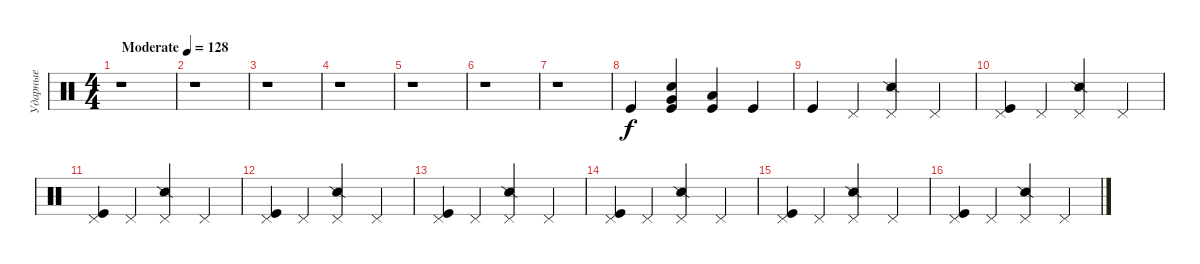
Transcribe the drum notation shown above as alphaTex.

\track ("Ударные" "Ударные") {instrument percussion}
\staff {score}
\articulation defaults
\ts (4 4)
\tempo (128 "Moderate")
\clef neutral
\ks c
r.1{dy f} |
r.1 |
r.1 |
r.1 |
r.1 |
r.1 |
r.1 |
"Kick (hit)".4 ("Snare (hit) 2" "Very Low Tom (hit)" "Kick (hit)").4 ("Low Tom (hit)" "Kick (hit)").4 "Kick (hit)".4 |
"Kick (hit)".4 "Pedal Hi-Hat (hit)".4 ("Pedal Hi-Hat (hit)" "Snare (side stick) 2").4 "Pedal Hi-Hat (hit)".4 |
("Pedal Hi-Hat (hit)" "Kick (hit)").4 "Pedal Hi-Hat (hit)".4 ("Pedal Hi-Hat (hit)" "Snare (side stick) 2").4 "Pedal Hi-Hat (hit)".4 |
("Pedal Hi-Hat (hit)" "Kick (hit)").4 "Pedal Hi-Hat (hit)".4 ("Pedal Hi-Hat (hit)" "Snare (side stick) 2").4 "Pedal Hi-Hat (hit)".4 |
("Pedal Hi-Hat (hit)" "Kick (hit)").4 "Pedal Hi-Hat (hit)".4 ("Pedal Hi-Hat (hit)" "Snare (side stick) 2").4 "Pedal Hi-Hat (hit)".4 |
("Pedal Hi-Hat (hit)" "Kick (hit)").4 "Pedal Hi-Hat (hit)".4 ("Pedal Hi-Hat (hit)" "Snare (side stick) 2").4 "Pedal Hi-Hat (hit)".4 |
("Pedal Hi-Hat (hit)" "Kick (hit)").4 "Pedal Hi-Hat (hit)".4 ("Pedal Hi-Hat (hit)" "Snare (side stick) 2").4 "Pedal Hi-Hat (hit)".4 |
("Pedal Hi-Hat (hit)" "Kick (hit)").4 "Pedal Hi-Hat (hit)".4 ("Pedal Hi-Hat (hit)" "Snare (side stick) 2").4 "Pedal Hi-Hat (hit)".4 |
("Pedal Hi-Hat (hit)" "Kick (hit)").4 "Pedal Hi-Hat (hit)".4 ("Pedal Hi-Hat (hit)" "Snare (side stick) 2").4 "Pedal Hi-Hat (hit)".4
